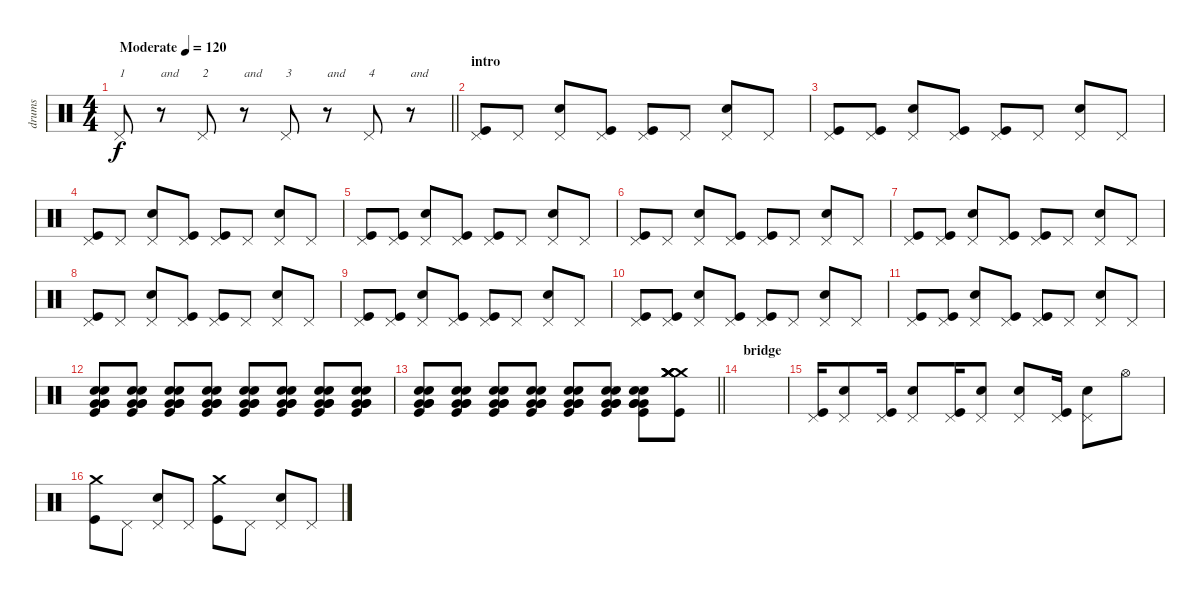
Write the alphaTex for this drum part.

\track ("drums" "drums") {instrument percussion}
\staff {score}
\articulation defaults
\ts (4 4)
\tempo (120 "Moderate")
\clef neutral
\barLineRight lightlight
\ks c "Pedal Hi-Hat (hit)".8{txt "1" dy f}
r.8{txt "and"} "Pedal Hi-Hat (hit)".8{txt "2"} r.8{txt "and"} "Pedal Hi-Hat (hit)".8{txt "3"} r.8{txt "and"} "Pedal Hi-Hat (hit)".8{txt "4"} r.8{txt "and"} |
\section ("" "intro")
("Pedal Hi-Hat (hit)" "Kick (hit)").8 "Pedal Hi-Hat (hit)".8 ("Pedal Hi-Hat (hit)" "Electric Snare (hit)").8 ("Pedal Hi-Hat (hit)" "Kick (hit)").8 ("Pedal Hi-Hat (hit)" "Kick (hit)").8 "Pedal Hi-Hat (hit)".8 ("Pedal Hi-Hat (hit)" "Electric Snare (hit)").8 "Pedal Hi-Hat (hit)".8 |
("Pedal Hi-Hat (hit)" "Kick (hit)").8 ("Pedal Hi-Hat (hit)" "Kick (hit)").8 ("Pedal Hi-Hat (hit)" "Electric Snare (hit)").8 ("Pedal Hi-Hat (hit)" "Kick (hit)").8 ("Pedal Hi-Hat (hit)" "Kick (hit)").8 "Pedal Hi-Hat (hit)".8 ("Pedal Hi-Hat (hit)" "Electric Snare (hit)").8 "Pedal Hi-Hat (hit)".8 |
("Pedal Hi-Hat (hit)" "Kick (hit)").8 "Pedal Hi-Hat (hit)".8 ("Pedal Hi-Hat (hit)" "Electric Snare (hit)").8 ("Pedal Hi-Hat (hit)" "Kick (hit)").8 ("Pedal Hi-Hat (hit)" "Kick (hit)").8 "Pedal Hi-Hat (hit)".8 ("Pedal Hi-Hat (hit)" "Electric Snare (hit)").8 "Pedal Hi-Hat (hit)".8 |
("Pedal Hi-Hat (hit)" "Kick (hit)").8 ("Pedal Hi-Hat (hit)" "Kick (hit)").8 ("Pedal Hi-Hat (hit)" "Electric Snare (hit)").8 ("Pedal Hi-Hat (hit)" "Kick (hit)").8 ("Pedal Hi-Hat (hit)" "Kick (hit)").8 "Pedal Hi-Hat (hit)".8 ("Pedal Hi-Hat (hit)" "Electric Snare (hit)").8 "Pedal Hi-Hat (hit)".8 |
("Pedal Hi-Hat (hit)" "Kick (hit)").8 "Pedal Hi-Hat (hit)".8 ("Pedal Hi-Hat (hit)" "Electric Snare (hit)").8 ("Pedal Hi-Hat (hit)" "Kick (hit)").8 ("Pedal Hi-Hat (hit)" "Kick (hit)").8 "Pedal Hi-Hat (hit)".8 ("Pedal Hi-Hat (hit)" "Electric Snare (hit)").8 "Pedal Hi-Hat (hit)".8 |
("Pedal Hi-Hat (hit)" "Kick (hit)").8 ("Pedal Hi-Hat (hit)" "Kick (hit)").8 ("Pedal Hi-Hat (hit)" "Electric Snare (hit)").8 ("Pedal Hi-Hat (hit)" "Kick (hit)").8 ("Pedal Hi-Hat (hit)" "Kick (hit)").8 "Pedal Hi-Hat (hit)".8 ("Pedal Hi-Hat (hit)" "Electric Snare (hit)").8 "Pedal Hi-Hat (hit)".8 |
("Pedal Hi-Hat (hit)" "Kick (hit)").8 "Pedal Hi-Hat (hit)".8 ("Pedal Hi-Hat (hit)" "Electric Snare (hit)").8 ("Pedal Hi-Hat (hit)" "Kick (hit)").8 ("Pedal Hi-Hat (hit)" "Kick (hit)").8 "Pedal Hi-Hat (hit)".8 ("Pedal Hi-Hat (hit)" "Electric Snare (hit)").8 "Pedal Hi-Hat (hit)".8 |
("Pedal Hi-Hat (hit)" "Kick (hit)").8 ("Pedal Hi-Hat (hit)" "Kick (hit)").8 ("Pedal Hi-Hat (hit)" "Electric Snare (hit)").8 ("Pedal Hi-Hat (hit)" "Kick (hit)").8 ("Pedal Hi-Hat (hit)" "Kick (hit)").8 "Pedal Hi-Hat (hit)".8 ("Pedal Hi-Hat (hit)" "Electric Snare (hit)").8 "Pedal Hi-Hat (hit)".8 |
("Pedal Hi-Hat (hit)" "Kick (hit)").8 ("Pedal Hi-Hat (hit)" "Kick (hit)").8 ("Pedal Hi-Hat (hit)" "Electric Snare (hit)").8 ("Pedal Hi-Hat (hit)" "Kick (hit)").8 ("Pedal Hi-Hat (hit)" "Kick (hit)").8 "Pedal Hi-Hat (hit)".8 ("Pedal Hi-Hat (hit)" "Electric Snare (hit)").8 "Pedal Hi-Hat (hit)".8 |
("Pedal Hi-Hat (hit)" "Kick (hit)").8 ("Pedal Hi-Hat (hit)" "Kick (hit)").8 ("Pedal Hi-Hat (hit)" "Electric Snare (hit)").8 ("Pedal Hi-Hat (hit)" "Kick (hit)").8 ("Pedal Hi-Hat (hit)" "Kick (hit)").8 "Pedal Hi-Hat (hit)".8 ("Pedal Hi-Hat (hit)" "Electric Snare (hit)").8 "Pedal Hi-Hat (hit)".8 |
("Very Low Tom (hit)" "Very Low Tom (hit)" "Very Low Tom (hit)" "Electric Snare (hit)" "Electric Snare (hit)" "Kick (hit)").8 ("Very Low Tom (hit)" "Very Low Tom (hit)" "Very Low Tom (hit)" "Electric Snare (hit)" "Electric Snare (hit)" "Kick (hit)").8 ("Very Low Tom (hit)" "Very Low Tom (hit)" "Very Low Tom (hit)" "Electric Snare (hit)" "Electric Snare (hit)" "Kick (hit)").8 ("Very Low Tom (hit)" "Very Low Tom (hit)" "Very Low Tom (hit)" "Electric Snare (hit)" "Electric Snare (hit)" "Kick (hit)").8 ("Very Low Tom (hit)" "Very Low Tom (hit)" "Very Low Tom (hit)" "Electric Snare (hit)" "Electric Snare (hit)" "Kick (hit)").8 ("Very Low Tom (hit)" "Very Low Tom (hit)" "Very Low Tom (hit)" "Electric Snare (hit)" "Electric Snare (hit)" "Kick (hit)").8 ("Very Low Tom (hit)" "Very Low Tom (hit)" "Very Low Tom (hit)" "Electric Snare (hit)" "Electric Snare (hit)" "Kick (hit)").8 ("Very Low Tom (hit)" "Very Low Tom (hit)" "Very Low Tom (hit)" "Electric Snare (hit)" "Electric Snare (hit)" "Kick (hit)").8 |
\barLineRight lightlight
("Very Low Tom (hit)" "Very Low Tom (hit)" "Very Low Tom (hit)" "Electric Snare (hit)" "Electric Snare (hit)" "Kick (hit)").8 ("Very Low Tom (hit)" "Very Low Tom (hit)" "Very Low Tom (hit)" "Electric Snare (hit)" "Electric Snare (hit)" "Kick (hit)").8 ("Very Low Tom (hit)" "Very Low Tom (hit)" "Very Low Tom (hit)" "Electric Snare (hit)" "Electric Snare (hit)" "Kick (hit)").8 ("Very Low Tom (hit)" "Very Low Tom (hit)" "Very Low Tom (hit)" "Electric Snare (hit)" "Electric Snare (hit)" "Kick (hit)").8 ("Very Low Tom (hit)" "Very Low Tom (hit)" "Very Low Tom (hit)" "Electric Snare (hit)" "Electric Snare (hit)" "Kick (hit)").8 ("Very Low Tom (hit)" "Very Low Tom (hit)" "Very Low Tom (hit)" "Electric Snare (hit)" "Electric Snare (hit)" "Kick (hit)").8 ("Very Low Tom (hit)" "Very Low Tom (hit)" "Very Low Tom (hit)" "Electric Snare (hit)" "Electric Snare (hit)" "Kick (hit)").8 ("Crash medium (hit)" "Crash medium (hit)" "Crash medium (hit)" "Crash medium (hit)" "Crash medium (hit)" "Kick (hit)").8 |
\section ("" "bridge")
|
("Pedal Hi-Hat (hit)" "Kick (hit)").16 ("Pedal Hi-Hat (hit)" "Electric Snare (hit)").8 ("Pedal Hi-Hat (hit)" "Kick (hit)").16 ("Pedal Hi-Hat (hit)" "Electric Snare (hit)").8 ("Pedal Hi-Hat (hit)" "Kick (hit)").16 ("Pedal Hi-Hat (hit)" "Electric Snare (hit)").8 ("Pedal Hi-Hat (hit)" "Electric Snare (hit)").8 ("Pedal Hi-Hat (hit)" "Kick (hit)").16 ("Pedal Hi-Hat (hit)" "Electric Snare (hit)").8 "Hi-Hat (open)".8 |
("Crash medium (hit)" "Kick (hit)").8 "Pedal Hi-Hat (hit)".8 ("Pedal Hi-Hat (hit)" "Electric Snare (hit)").8 "Pedal Hi-Hat (hit)".8 ("Crash medium (hit)" "Kick (hit)").8 "Pedal Hi-Hat (hit)".8 ("Pedal Hi-Hat (hit)" "Electric Snare (hit)").8 "Pedal Hi-Hat (hit)".8
